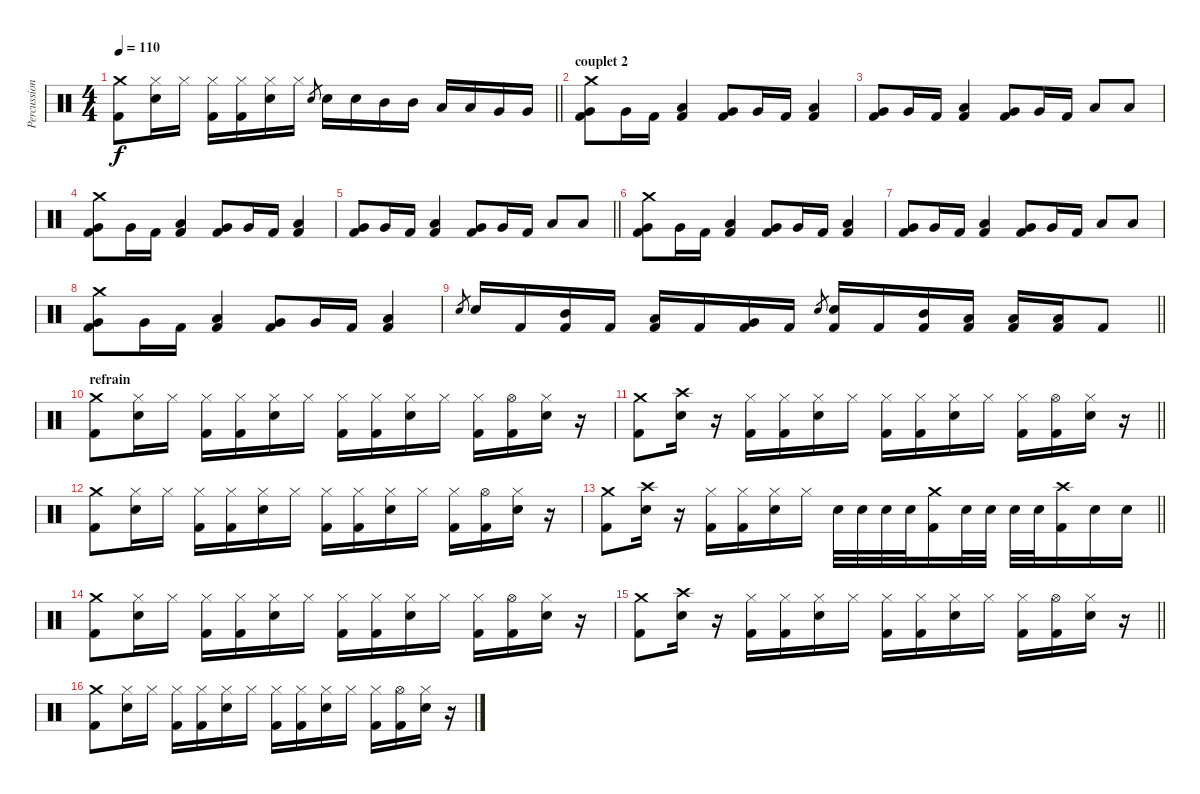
\track ("Percussions" "Percussion") {instrument percussion}
\staff {score}
\articulation defaults
\ts (4 4)
\tempo 110
\clef neutral
\barLineRight lightlight
\ks c
("Crash medium (hit)" "Kick (hit) 2").8{dy f} ("Hi-Hat (closed)" "Electric Snare (hit)").16 "Hi-Hat (closed)".16 ("Hi-Hat (closed)" "Kick (hit) 2").16 ("Hi-Hat (closed)" "Kick (hit) 2").16 ("Hi-Hat (closed)" "Electric Snare (hit)").16 "Hi-Hat (closed)".16 "Electric Snare (hit)".8{gr} "Electric Snare (hit)".16 "Electric Snare (hit)".16 "Mid Tom (hit)".16 "Mid Tom (hit)".16 "Low Tom (hit)".16 "Low Tom (hit)".16 "Very Low Tom (hit)".16 "Very Low Tom (hit)".16 |
\section ("" "couplet 2")
("Crash medium (hit)" "Very Low Tom (hit)" "Kick (hit) 2").8 "Very Low Tom (hit)".16 "Kick (hit) 2".16 ("Low Tom (hit)" "Kick (hit) 2").4 ("Very Low Tom (hit)" "Kick (hit) 2").8 "Very Low Tom (hit)".16 "Kick (hit) 2".16 ("Low Tom (hit)" "Kick (hit) 2").4 |
("Very Low Tom (hit)" "Kick (hit) 2").8 "Very Low Tom (hit)".16 "Kick (hit) 2".16 ("Low Tom (hit)" "Kick (hit) 2").4 ("Very Low Tom (hit)" "Kick (hit) 2").8 "Very Low Tom (hit)".16 "Kick (hit) 2".16 "Low Tom (hit)".8 "Low Tom (hit)".8 |
("Crash medium (hit)" "Very Low Tom (hit)" "Kick (hit) 2").8 "Very Low Tom (hit)".16 "Kick (hit) 2".16 ("Low Tom (hit)" "Kick (hit) 2").4 ("Very Low Tom (hit)" "Kick (hit) 2").8 "Very Low Tom (hit)".16 "Kick (hit) 2".16 ("Low Tom (hit)" "Kick (hit) 2").4 |
\barLineRight lightlight
("Very Low Tom (hit)" "Kick (hit) 2").8 "Very Low Tom (hit)".16 "Kick (hit) 2".16 ("Low Tom (hit)" "Kick (hit) 2").4 ("Very Low Tom (hit)" "Kick (hit) 2").8 "Very Low Tom (hit)".16 "Kick (hit) 2".16 "Low Tom (hit)".8 "Low Tom (hit)".8 |
("Crash medium (hit)" "Very Low Tom (hit)" "Kick (hit) 2").8 "Very Low Tom (hit)".16 "Kick (hit) 2".16 ("Low Tom (hit)" "Kick (hit) 2").4 ("Very Low Tom (hit)" "Kick (hit) 2").8 "Very Low Tom (hit)".16 "Kick (hit) 2".16 ("Low Tom (hit)" "Kick (hit) 2").4 |
("Very Low Tom (hit)" "Kick (hit) 2").8 "Very Low Tom (hit)".16 "Kick (hit) 2".16 ("Low Tom (hit)" "Kick (hit) 2").4 ("Very Low Tom (hit)" "Kick (hit) 2").8 "Very Low Tom (hit)".16 "Kick (hit) 2".16 "Low Tom (hit)".8 "Low Tom (hit)".8 |
("Crash medium (hit)" "Very Low Tom (hit)" "Kick (hit) 2").8 "Very Low Tom (hit)".16 "Kick (hit) 2".16 ("Low Tom (hit)" "Kick (hit) 2").4 ("Very Low Tom (hit)" "Kick (hit) 2").8 "Very Low Tom (hit)".16 "Kick (hit) 2".16 ("Low Tom (hit)" "Kick (hit) 2").4 |
\barLineRight lightlight "Electric Snare (hit)".8{gr} "Electric Snare (hit)".16 "Kick (hit) 2".16
("Mid Tom (hit)" "Kick (hit) 2").16 "Kick (hit) 2".16 ("Low Tom (hit)" "Kick (hit) 2").16 "Kick (hit) 2".16 ("Very Low Tom (hit)" "Kick (hit) 2").16 "Kick (hit) 2".16 "Electric Snare (hit)".8{gr} ("Electric Snare (hit)" "Kick (hit) 2").16 "Kick (hit) 2".16 ("Mid Tom (hit)" "Kick (hit) 2").16 ("Low Tom (hit)" "Kick (hit) 2").16 ("Low Tom (hit)" "Kick (hit) 2").16 ("Low Tom (hit)" "Kick (hit) 2").16 "Kick (hit) 2".8 |
\section ("" "refrain")
("Crash medium (hit)" "Kick (hit) 2").8 ("Hi-Hat (closed)" "Electric Snare (hit)").16 "Hi-Hat (closed)".16 ("Hi-Hat (closed)" "Kick (hit) 2").16 ("Hi-Hat (closed)" "Kick (hit) 2").16 ("Hi-Hat (closed)" "Electric Snare (hit)").16 "Hi-Hat (closed)".16 ("Hi-Hat (closed)" "Kick (hit) 2").16 ("Hi-Hat (closed)" "Kick (hit) 2").16 ("Hi-Hat (closed)" "Electric Snare (hit)").16 "Hi-Hat (closed)".16 ("Hi-Hat (closed)" "Kick (hit) 2").16 ("Hi-Hat (open)" "Kick (hit) 2").16 ("Hi-Hat (closed)" "Electric Snare (hit)").16 r.16 |
\barLineRight lightlight
("Crash medium (hit)" "Kick (hit) 2").8 ("Crash high (hit)" "Electric Snare (hit)").16 r.16 ("Hi-Hat (closed)" "Kick (hit) 2").16 ("Hi-Hat (closed)" "Kick (hit) 2").16 ("Hi-Hat (closed)" "Electric Snare (hit)").16 "Hi-Hat (closed)".16 ("Hi-Hat (closed)" "Kick (hit) 2").16 ("Hi-Hat (closed)" "Kick (hit) 2").16 ("Hi-Hat (closed)" "Electric Snare (hit)").16 "Hi-Hat (closed)".16 ("Hi-Hat (closed)" "Kick (hit) 2").16 ("Hi-Hat (open)" "Kick (hit) 2").16 ("Hi-Hat (closed)" "Electric Snare (hit)").16 r.16 |
("Crash medium (hit)" "Kick (hit) 2").8 ("Hi-Hat (closed)" "Electric Snare (hit)").16 "Hi-Hat (closed)".16 ("Hi-Hat (closed)" "Kick (hit) 2").16 ("Hi-Hat (closed)" "Kick (hit) 2").16 ("Hi-Hat (closed)" "Electric Snare (hit)").16 "Hi-Hat (closed)".16 ("Hi-Hat (closed)" "Kick (hit) 2").16 ("Hi-Hat (closed)" "Kick (hit) 2").16 ("Hi-Hat (closed)" "Electric Snare (hit)").16 "Hi-Hat (closed)".16 ("Hi-Hat (closed)" "Kick (hit) 2").16 ("Hi-Hat (open)" "Kick (hit) 2").16 ("Hi-Hat (closed)" "Electric Snare (hit)").16 r.16 |
\barLineRight lightlight
("Crash medium (hit)" "Kick (hit) 2").8 ("Crash high (hit)" "Electric Snare (hit)").16 r.16 ("Hi-Hat (closed)" "Kick (hit) 2").16 ("Hi-Hat (closed)" "Kick (hit) 2").16 ("Hi-Hat (closed)" "Electric Snare (hit)").16 "Hi-Hat (closed)".16 "Electric Snare (hit)".32 "Electric Snare (hit)".32 "Electric Snare (hit)".32 "Electric Snare (hit)".32 ("Crash medium (hit)" "Kick (hit) 2").16 "Electric Snare (hit)".32 "Electric Snare (hit)".32 "Electric Snare (hit)".32 "Electric Snare (hit)".32 ("Crash high (hit)" "Kick (hit) 2").16 "Electric Snare (hit)".16 "Electric Snare (hit)".16 |
("Crash medium (hit)" "Kick (hit) 2").8 ("Hi-Hat (closed)" "Electric Snare (hit)").16 "Hi-Hat (closed)".16 ("Hi-Hat (closed)" "Kick (hit) 2").16 ("Hi-Hat (closed)" "Kick (hit) 2").16 ("Hi-Hat (closed)" "Electric Snare (hit)").16 "Hi-Hat (closed)".16 ("Hi-Hat (closed)" "Kick (hit) 2").16 ("Hi-Hat (closed)" "Kick (hit) 2").16 ("Hi-Hat (closed)" "Electric Snare (hit)").16 "Hi-Hat (closed)".16 ("Hi-Hat (closed)" "Kick (hit) 2").16 ("Hi-Hat (open)" "Kick (hit) 2").16 ("Hi-Hat (closed)" "Electric Snare (hit)").16 r.16 |
\barLineRight lightlight
("Crash medium (hit)" "Kick (hit) 2").8 ("Crash high (hit)" "Electric Snare (hit)").16 r.16 ("Hi-Hat (closed)" "Kick (hit) 2").16 ("Hi-Hat (closed)" "Kick (hit) 2").16 ("Hi-Hat (closed)" "Electric Snare (hit)").16 "Hi-Hat (closed)".16 ("Hi-Hat (closed)" "Kick (hit) 2").16 ("Hi-Hat (closed)" "Kick (hit) 2").16 ("Hi-Hat (closed)" "Electric Snare (hit)").16 "Hi-Hat (closed)".16 ("Hi-Hat (closed)" "Kick (hit) 2").16 ("Hi-Hat (open)" "Kick (hit) 2").16 ("Hi-Hat (closed)" "Electric Snare (hit)").16 r.16 |
("Crash medium (hit)" "Kick (hit) 2").8 ("Hi-Hat (closed)" "Electric Snare (hit)").16 "Hi-Hat (closed)".16 ("Hi-Hat (closed)" "Kick (hit) 2").16 ("Hi-Hat (closed)" "Kick (hit) 2").16 ("Hi-Hat (closed)" "Electric Snare (hit)").16 "Hi-Hat (closed)".16 ("Hi-Hat (closed)" "Kick (hit) 2").16 ("Hi-Hat (closed)" "Kick (hit) 2").16 ("Hi-Hat (closed)" "Electric Snare (hit)").16 "Hi-Hat (closed)".16 ("Hi-Hat (closed)" "Kick (hit) 2").16 ("Hi-Hat (open)" "Kick (hit) 2").16 ("Hi-Hat (closed)" "Electric Snare (hit)").16 r.16
